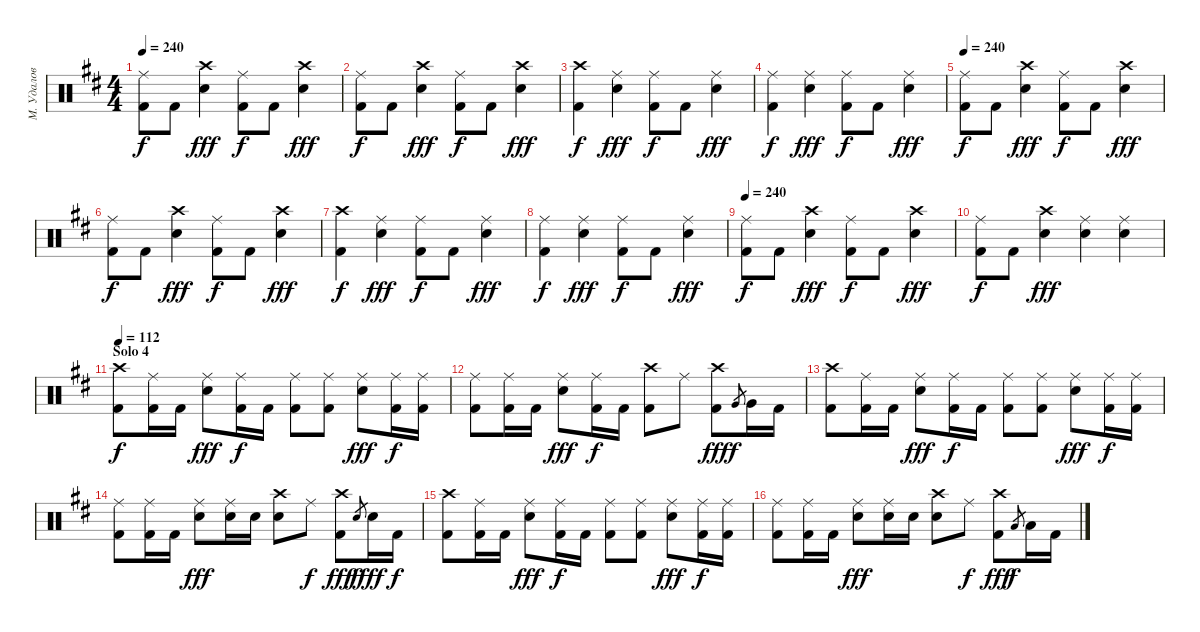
\track ("М. Удалов" "М. Удалов") {instrument percussion}
\staff {score}
\articulation defaults
\ts (4 4)
\tempo 240
\clef neutral
\ks d
("Ride (middle)" "Kick (hit) 2").8{dy f} "Kick (hit) 2".8 ("Crash high (hit)" "Electric Snare (hit)").4{dy fff} ("Ride (middle)" "Kick (hit) 2").8{dy f} "Kick (hit) 2".8 ("Crash high (hit)" "Electric Snare (hit)").4{dy fff} |
("Ride (middle)" "Kick (hit) 2").8{dy f} "Kick (hit) 2".8 ("Crash high (hit)" "Electric Snare (hit)").4{dy fff} ("Ride (middle)" "Kick (hit) 2").8{dy f} "Kick (hit) 2".8 ("Crash high (hit)" "Electric Snare (hit)").4{dy fff} |
("Crash high (hit)" "Kick (hit) 2").4{dy f} ("Ride (middle)" "Electric Snare (hit)").4{dy fff} ("Ride (middle)" "Kick (hit) 2").8{dy f} "Kick (hit) 2".8 ("Ride (middle)" "Electric Snare (hit)").4{dy fff} |
("Ride (middle)" "Kick (hit) 2").4{dy f} ("Ride (middle)" "Electric Snare (hit)").4{dy fff} ("Ride (middle)" "Kick (hit) 2").8{dy f} "Kick (hit) 2".8 ("Ride (middle)" "Electric Snare (hit)").4{dy fff} |
\tempo 240
("Ride (middle)" "Kick (hit) 2").8{dy f} "Kick (hit) 2".8 ("Crash high (hit)" "Electric Snare (hit)").4{dy fff} ("Ride (middle)" "Kick (hit) 2").8{dy f} "Kick (hit) 2".8 ("Crash high (hit)" "Electric Snare (hit)").4{dy fff} |
("Ride (middle)" "Kick (hit) 2").8{dy f} "Kick (hit) 2".8 ("Crash high (hit)" "Electric Snare (hit)").4{dy fff} ("Ride (middle)" "Kick (hit) 2").8{dy f} "Kick (hit) 2".8 ("Crash high (hit)" "Electric Snare (hit)").4{dy fff} |
("Crash high (hit)" "Kick (hit) 2").4{dy f} ("Ride (middle)" "Electric Snare (hit)").4{dy fff} ("Ride (middle)" "Kick (hit) 2").8{dy f} "Kick (hit) 2".8 ("Ride (middle)" "Electric Snare (hit)").4{dy fff} |
("Ride (middle)" "Kick (hit) 2").4{dy f} ("Ride (middle)" "Electric Snare (hit)").4{dy fff} ("Ride (middle)" "Kick (hit) 2").8{dy f} "Kick (hit) 2".8 ("Ride (middle)" "Electric Snare (hit)").4{dy fff} |
\tempo 240
("Ride (middle)" "Kick (hit) 2").8{dy f} "Kick (hit) 2".8 ("Crash high (hit)" "Electric Snare (hit)").4{dy fff} ("Ride (middle)" "Kick (hit) 2").8{dy f} "Kick (hit) 2".8 ("Crash high (hit)" "Electric Snare (hit)").4{dy fff} |
("Ride (middle)" "Kick (hit) 2").8{dy f} "Kick (hit) 2".8 ("Crash high (hit)" "Electric Snare (hit)").4{dy fff} ("Ride (middle)" "Electric Snare (hit)").4 ("Ride (middle)" "Electric Snare (hit)").4 |
\section ("" "Solo 4")
\tempo 112
("Crash high (hit)" "Kick (hit) 2").8{dy f} ("Ride (middle)" "Kick (hit) 2").16 "Kick (hit) 2".16 ("Ride (middle)" "Electric Snare (hit)").8{dy fff} ("Ride (middle)" "Kick (hit) 2").16{dy f} "Kick (hit) 2".16 ("Ride (middle)" "Kick (hit) 2").8 ("Ride (middle)" "Kick (hit) 2").8 ("Ride (middle)" "Electric Snare (hit)").8{dy fff} ("Ride (middle)" "Kick (hit) 2").16{dy f} ("Ride (middle)" "Kick (hit) 2").16 |
("Ride (middle)" "Kick (hit) 2").8 ("Ride (middle)" "Kick (hit) 2").16 "Kick (hit) 2".16 ("Ride (middle)" "Electric Snare (hit)").8{dy fff} ("Ride (middle)" "Kick (hit) 2").16{dy f} "Kick (hit) 2".16 ("Crash high (hit)" "Kick (hit) 2").8 "Ride (middle)".8 ("Crash high (hit)" "Kick (hit) 2").8{dy fff} "Very Low Tom (hit)".8{gr dy f} "Very Low Tom (hit)".16 "Kick (hit) 2".16 |
("Crash high (hit)" "Kick (hit) 2").8 ("Ride (middle)" "Kick (hit) 2").16 "Kick (hit) 2".16 ("Ride (middle)" "Electric Snare (hit)").8{dy fff} ("Ride (middle)" "Kick (hit) 2").16{dy f} "Kick (hit) 2".16 ("Ride (middle)" "Kick (hit) 2").8 ("Ride (middle)" "Kick (hit) 2").8 ("Ride (middle)" "Electric Snare (hit)").8{dy fff} ("Ride (middle)" "Kick (hit) 2").16{dy f} ("Ride (middle)" "Kick (hit) 2").16 |
("Ride (middle)" "Kick (hit) 2").8 ("Ride (middle)" "Kick (hit) 2").16 "Kick (hit) 2".16 ("Ride (middle)" "Electric Snare (hit)").8{dy fff} ("Ride (middle)" "Electric Snare (hit)").16 "Electric Snare (hit)".16 ("Crash high (hit)" "Electric Snare (hit)").8 "Ride (middle)".8{dy f} ("Crash high (hit)" "Kick (hit) 2").8{dy fff} "Electric Snare (hit)".8{gr dy f} "Electric Snare (hit)".16{dy fff} "Kick (hit) 2".16{dy f} |
("Crash high (hit)" "Kick (hit) 2").8 ("Ride (middle)" "Kick (hit) 2").16 "Kick (hit) 2".16 ("Ride (middle)" "Electric Snare (hit)").8{dy fff} ("Ride (middle)" "Kick (hit) 2").16{dy f} "Kick (hit) 2".16 ("Ride (middle)" "Kick (hit) 2").8 ("Ride (middle)" "Kick (hit) 2").8 ("Ride (middle)" "Electric Snare (hit)").8{dy fff} ("Ride (middle)" "Kick (hit) 2").16{dy f} ("Ride (middle)" "Kick (hit) 2").16 |
("Ride (middle)" "Kick (hit) 2").8 ("Ride (middle)" "Kick (hit) 2").16 "Kick (hit) 2".16 ("Ride (middle)" "Electric Snare (hit)").8{dy fff} ("Ride (middle)" "Electric Snare (hit)").16 "Electric Snare (hit)".16 ("Crash high (hit)" "Electric Snare (hit)").8 "Ride (middle)".8{dy f} ("Crash high (hit)" "Kick (hit) 2").8{dy fff} "Low Tom (hit)".8{gr dy f} "Low Tom (hit)".16 "Kick (hit) 2".16
